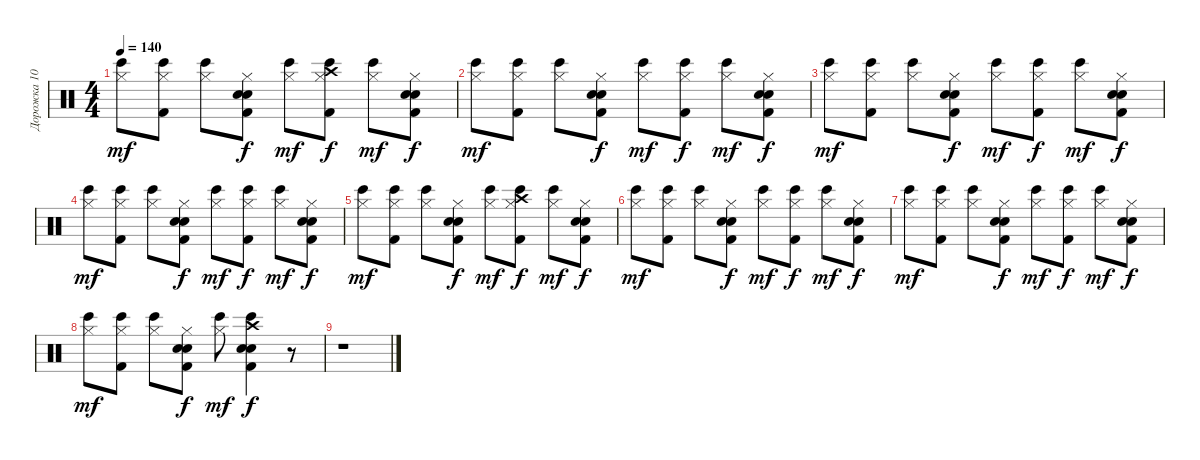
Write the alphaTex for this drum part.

\track ("Дорожка 10" "Дорожка 10") {instrument percussion}
\staff {score}
\articulation defaults
\ts (4 4)
\tempo 140
\clef neutral
\ks c
("Hi-Hat (closed)" "Bongo High (hit)").8{dy mf} ("Hi-Hat (closed)" "Kick (hit) 2" "Bongo High (hit)").8 ("Hi-Hat (closed)" "Bongo High (hit)").8 ("Hand Clap (hit)" "Hi-Hat (closed)" "Kick (hit) 2" "Snare (hit) 2").8{dy f} ("Bongo High (hit)" "Hi-Hat (closed)").8{dy mf} ("Bongo High (hit)" "Hi-Hat (closed)" "Crash high (hit)" "Kick (hit) 2").8{dy f} ("Bongo High (hit)" "Hi-Hat (closed)").8{dy mf} ("Hi-Hat (closed)" "Snare (hit) 2" "Hand Clap (hit)" "Kick (hit) 2").8{dy f} |
("Hi-Hat (closed)" "Bongo High (hit)").8{dy mf} ("Hi-Hat (closed)" "Kick (hit) 2" "Bongo High (hit)").8 ("Hi-Hat (closed)" "Bongo High (hit)").8 ("Hi-Hat (closed)" "Hand Clap (hit)" "Kick (hit) 2" "Snare (hit) 2").8{dy f} ("Bongo High (hit)" "Hi-Hat (closed)").8{dy mf} ("Bongo High (hit)" "Hi-Hat (closed)" "Kick (hit) 2").8{dy f} ("Bongo High (hit)" "Hi-Hat (closed)").8{dy mf} ("Hand Clap (hit)" "Hi-Hat (closed)" "Snare (hit) 2" "Kick (hit) 2").8{dy f} |
("Hi-Hat (closed)" "Bongo High (hit)").8{dy mf} ("Hi-Hat (closed)" "Kick (hit) 2" "Bongo High (hit)").8 ("Hi-Hat (closed)" "Bongo High (hit)").8 ("Hand Clap (hit)" "Hi-Hat (closed)" "Kick (hit) 2" "Snare (hit) 2").8{dy f} ("Bongo High (hit)" "Hi-Hat (closed)").8{dy mf} ("Hi-Hat (closed)" "Bongo High (hit)" "Kick (hit) 2").8{dy f} ("Bongo High (hit)" "Hi-Hat (closed)").8{dy mf} ("Hi-Hat (closed)" "Hand Clap (hit)" "Snare (hit) 2" "Kick (hit) 2").8{dy f} |
("Hi-Hat (closed)" "Bongo High (hit)").8{dy mf} ("Hi-Hat (closed)" "Kick (hit) 2" "Bongo High (hit)").8 ("Hi-Hat (closed)" "Bongo High (hit)").8 ("Hi-Hat (closed)" "Hand Clap (hit)" "Kick (hit) 2" "Snare (hit) 2").8{dy f} ("Hi-Hat (closed)" "Bongo High (hit)").8{dy mf} ("Hi-Hat (closed)" "Bongo High (hit)" "Kick (hit) 2").8{dy f} ("Bongo High (hit)" "Hi-Hat (closed)").8{dy mf} ("Hi-Hat (closed)" "Hand Clap (hit)" "Snare (hit) 2" "Kick (hit) 2").8{dy f} |
("Hi-Hat (closed)" "Bongo High (hit)").8{dy mf} ("Hi-Hat (closed)" "Kick (hit) 2" "Bongo High (hit)").8 ("Hi-Hat (closed)" "Bongo High (hit)").8 ("Hi-Hat (closed)" "Hand Clap (hit)" "Kick (hit) 2" "Snare (hit) 2").8{dy f} ("Hi-Hat (closed)" "Bongo High (hit)").8{dy mf} ("Crash high (hit)" "Kick (hit) 2" "Hi-Hat (closed)" "Bongo High (hit)").8{dy f} ("Bongo High (hit)" "Hi-Hat (closed)").8{dy mf} ("Snare (hit) 2" "Kick (hit) 2" "Hi-Hat (closed)" "Hand Clap (hit)").8{dy f} |
("Hi-Hat (closed)" "Bongo High (hit)").8{dy mf} ("Kick (hit) 2" "Hi-Hat (closed)" "Bongo High (hit)").8 ("Hi-Hat (closed)" "Bongo High (hit)").8 ("Kick (hit) 2" "Snare (hit) 2" "Hi-Hat (closed)" "Hand Clap (hit)").8{dy f} ("Hi-Hat (closed)" "Bongo High (hit)").8{dy mf} ("Kick (hit) 2" "Bongo High (hit)" "Hi-Hat (closed)").8{dy f} ("Bongo High (hit)" "Hi-Hat (closed)").8{dy mf} ("Snare (hit) 2" "Kick (hit) 2" "Hand Clap (hit)" "Hi-Hat (closed)").8{dy f} |
("Hi-Hat (closed)" "Bongo High (hit)").8{dy mf} ("Kick (hit) 2" "Hi-Hat (closed)" "Bongo High (hit)").8 ("Hi-Hat (closed)" "Bongo High (hit)").8 ("Kick (hit) 2" "Snare (hit) 2" "Hand Clap (hit)" "Hi-Hat (closed)").8{dy f} ("Bongo High (hit)" "Hi-Hat (closed)").8{dy mf} ("Hi-Hat (closed)" "Kick (hit) 2" "Bongo High (hit)").8{dy f} ("Bongo High (hit)" "Hi-Hat (closed)").8{dy mf} ("Hi-Hat (closed)" "Snare (hit) 2" "Kick (hit) 2" "Hand Clap (hit)").8{dy f} |
("Hi-Hat (closed)" "Bongo High (hit)").8{dy mf} ("Hi-Hat (closed)" "Kick (hit) 2" "Bongo High (hit)").8 ("Hi-Hat (closed)" "Bongo High (hit)").8 ("Hi-Hat (closed)" "Kick (hit) 2" "Snare (hit) 2" "Hand Clap (hit)").8{dy f} ("Hi-Hat (closed)" "Bongo High (hit)").8{dy mf} ("Electric Snare (hit)" "Snare (hit) 2" "Crash high (hit)" "Bongo High (hit)" "Kick (hit) 2").4{dy f} r.8 |
r.1
